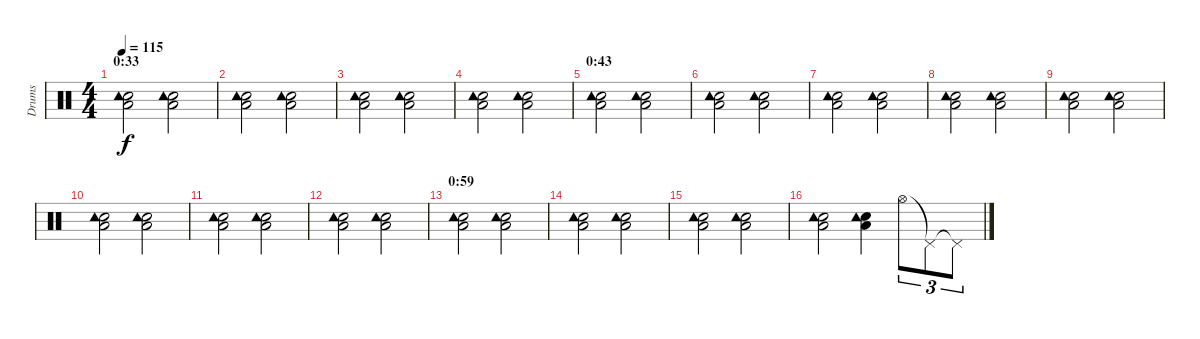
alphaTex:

\track ("Drums" "Drums") {instrument percussion}
\staff {score}
\articulation defaults
\ts (4 4)
\section ("" "0:33")
\tempo 115
\clef neutral
\ks c
("Hand Clap (hit)" "Low Floor Tom (hit)" "Tambourine (hit)").2{dy f} ("Hand Clap (hit)" "Low Floor Tom (hit)" "Tambourine (hit)").2 |
("Hand Clap (hit)" "Low Floor Tom (hit)" "Tambourine (hit)").2 ("Hand Clap (hit)" "Low Floor Tom (hit)" "Tambourine (hit)").2 |
("Hand Clap (hit)" "Low Floor Tom (hit)" "Tambourine (hit)").2 ("Hand Clap (hit)" "Low Floor Tom (hit)" "Tambourine (hit)").2 |
("Hand Clap (hit)" "Low Floor Tom (hit)" "Tambourine (hit)").2 ("Hand Clap (hit)" "Low Floor Tom (hit)" "Tambourine (hit)").2 |
\section ("" "0:43")
("Hand Clap (hit)" "Low Floor Tom (hit)" "Tambourine (hit)").2 ("Hand Clap (hit)" "Low Floor Tom (hit)" "Tambourine (hit)").2 |
("Hand Clap (hit)" "Low Floor Tom (hit)" "Tambourine (hit)").2 ("Hand Clap (hit)" "Low Floor Tom (hit)" "Tambourine (hit)").2 |
("Hand Clap (hit)" "Low Floor Tom (hit)" "Tambourine (hit)").2 ("Hand Clap (hit)" "Low Floor Tom (hit)" "Tambourine (hit)").2 |
("Hand Clap (hit)" "Low Floor Tom (hit)" "Tambourine (hit)").2 ("Hand Clap (hit)" "Low Floor Tom (hit)" "Tambourine (hit)").2 |
("Hand Clap (hit)" "Low Floor Tom (hit)" "Tambourine (hit)").2 ("Hand Clap (hit)" "Low Floor Tom (hit)" "Tambourine (hit)").2 |
("Hand Clap (hit)" "Low Floor Tom (hit)" "Tambourine (hit)").2 ("Hand Clap (hit)" "Low Floor Tom (hit)" "Tambourine (hit)").2 |
("Hand Clap (hit)" "Low Floor Tom (hit)" "Tambourine (hit)").2 ("Hand Clap (hit)" "Low Floor Tom (hit)" "Tambourine (hit)").2 |
("Hand Clap (hit)" "Low Floor Tom (hit)" "Tambourine (hit)").2 ("Hand Clap (hit)" "Low Floor Tom (hit)" "Tambourine (hit)").2 |
\section ("" "0:59")
("Hand Clap (hit)" "Low Floor Tom (hit)" "Tambourine (hit)").2 ("Hand Clap (hit)" "Low Floor Tom (hit)" "Tambourine (hit)").2 |
("Hand Clap (hit)" "Low Floor Tom (hit)" "Tambourine (hit)").2 ("Hand Clap (hit)" "Low Floor Tom (hit)" "Tambourine (hit)").2 |
("Hand Clap (hit)" "Low Floor Tom (hit)" "Tambourine (hit)").2 ("Hand Clap (hit)" "Low Floor Tom (hit)" "Tambourine (hit)").2 |
("Hand Clap (hit)" "Low Floor Tom (hit)" "Tambourine (hit)").2 ("Hand Clap (hit)" "Low Floor Tom (hit)" "Tambourine (hit)").4 "Hi-Hat (open)".8{tu (3 2)} "Pedal Hi-Hat (hit)"{t}.8{tu (3 2)} "Pedal Hi-Hat (hit)"{t}.8{tu (3 2)}
